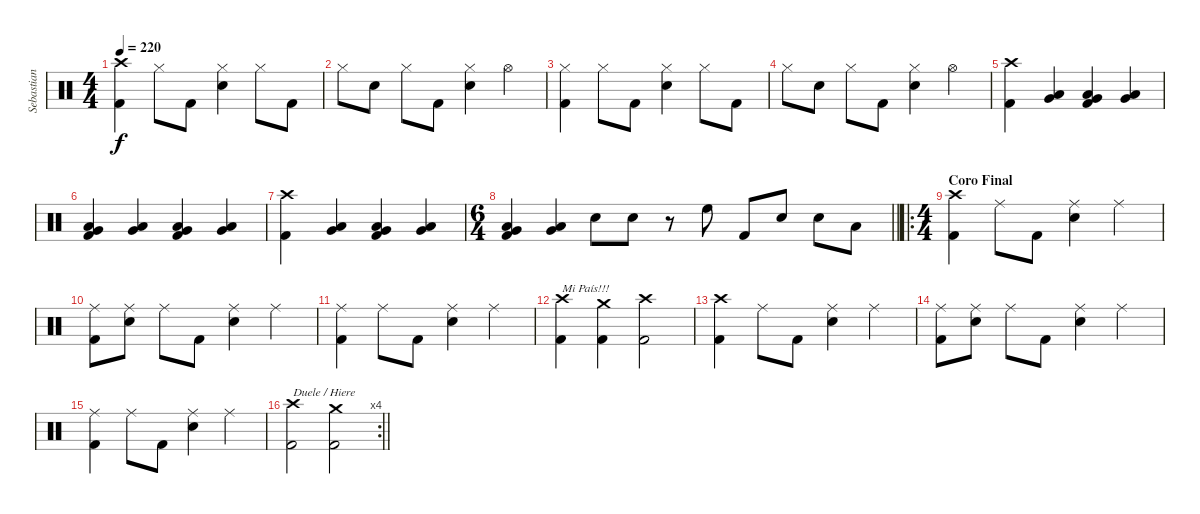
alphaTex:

\track ("Sebastian" "Sebastian") {instrument percussion}
\staff {score}
\articulation defaults
\ts (4 4)
\tempo 220
\clef neutral
\ks c
("Crash high (hit)" "Kick (hit) 2").4{dy f} "Hi-Hat (closed)".8 "Kick (hit) 2".8 ("Hi-Hat (closed)" "Snare (hit) 2").4 "Hi-Hat (closed)".8 "Kick (hit) 2".8 |
"Hi-Hat (closed)".8 "Snare (hit) 2".8 "Hi-Hat (closed)".8 "Kick (hit) 2".8 ("Hi-Hat (closed)" "Snare (hit) 2").4 "Hi-Hat (open)".4 |
("Hi-Hat (closed)" "Kick (hit) 2").4 "Hi-Hat (closed)".8 "Kick (hit) 2".8 ("Hi-Hat (closed)" "Snare (hit) 2").4 "Hi-Hat (closed)".8 "Kick (hit) 2".8 |
"Hi-Hat (closed)".8 "Snare (hit) 2".8 "Hi-Hat (closed)".8 "Kick (hit) 2".8 ("Hi-Hat (closed)" "Snare (hit) 2").4 "Hi-Hat (open)".4 |
("Crash high (hit)" "Kick (hit) 2").4 ("Low Tom (hit)" "Very Low Tom (hit)").4 ("Low Tom (hit)" "Very Low Tom (hit)" "Kick (hit) 2").4 ("Low Tom (hit)" "Very Low Tom (hit)").4 |
("Low Tom (hit)" "Very Low Tom (hit)" "Kick (hit) 2").4 ("Low Tom (hit)" "Very Low Tom (hit)").4 ("Low Tom (hit)" "Very Low Tom (hit)" "Kick (hit) 2").4 ("Low Tom (hit)" "Very Low Tom (hit)").4 |
("Crash high (hit)" "Kick (hit) 2").4 ("Low Tom (hit)" "Very Low Tom (hit)").4 ("Low Tom (hit)" "Very Low Tom (hit)" "Kick (hit) 2").4 ("Low Tom (hit)" "Very Low Tom (hit)").4 |
\ts (6 4)
\barLineRight lightlight
("Low Tom (hit)" "Very Low Tom (hit)" "Kick (hit) 2").4 ("Low Tom (hit)" "Very Low Tom (hit)").4 "Snare (hit) 2".8 "Snare (hit) 2".8 r.8 "High Floor Tom (hit)".8 "Kick (hit) 2".8 "Snare (hit) 2".8 "Snare (hit) 2".8 "Low Tom (hit)".8 |
\ro
\ts (4 4)
\section ("" "Coro Final")
("Crash high (hit)" "Kick (hit) 2").4 "Ride (middle)".8 "Kick (hit) 2".8 ("Ride (middle)" "Snare (hit) 2").4 "Ride (middle)".4 |
("Ride (middle)" "Kick (hit) 2").8 ("Ride (middle)" "Snare (hit) 2").8 "Ride (middle)".8 "Kick (hit) 2".8 ("Ride (middle)" "Snare (hit) 2").4 "Ride (middle)".4 |
("Ride (middle)" "Kick (hit) 2").4 "Ride (middle)".8 "Kick (hit) 2".8 ("Ride (middle)" "Snare (hit) 2").4 "Ride (middle)".4 |
("Crash high (hit)" "Kick (hit) 2").4{txt "Mi País!!!"} ("Crash medium (hit)" "Kick (hit) 2").4 ("Crash high (hit)" "Kick (hit) 2").2 |
("Crash high (hit)" "Kick (hit) 2").4 "Ride (middle)".8 "Kick (hit) 2".8 ("Ride (middle)" "Snare (hit) 2").4 "Ride (middle)".4 |
("Ride (middle)" "Kick (hit) 2").8 ("Ride (middle)" "Snare (hit) 2").8 "Ride (middle)".8 "Kick (hit) 2".8 ("Ride (middle)" "Snare (hit) 2").4 "Ride (middle)".4 |
("Ride (middle)" "Kick (hit) 2").4 "Ride (middle)".8 "Kick (hit) 2".8 ("Ride (middle)" "Snare (hit) 2").4 "Ride (middle)".4 |
\rc 4
\barLineRight lightlight
("Crash high (hit)" "Kick (hit) 2").2{txt "Duele / Hiere"} ("Crash medium (hit)" "Kick (hit) 2").2
